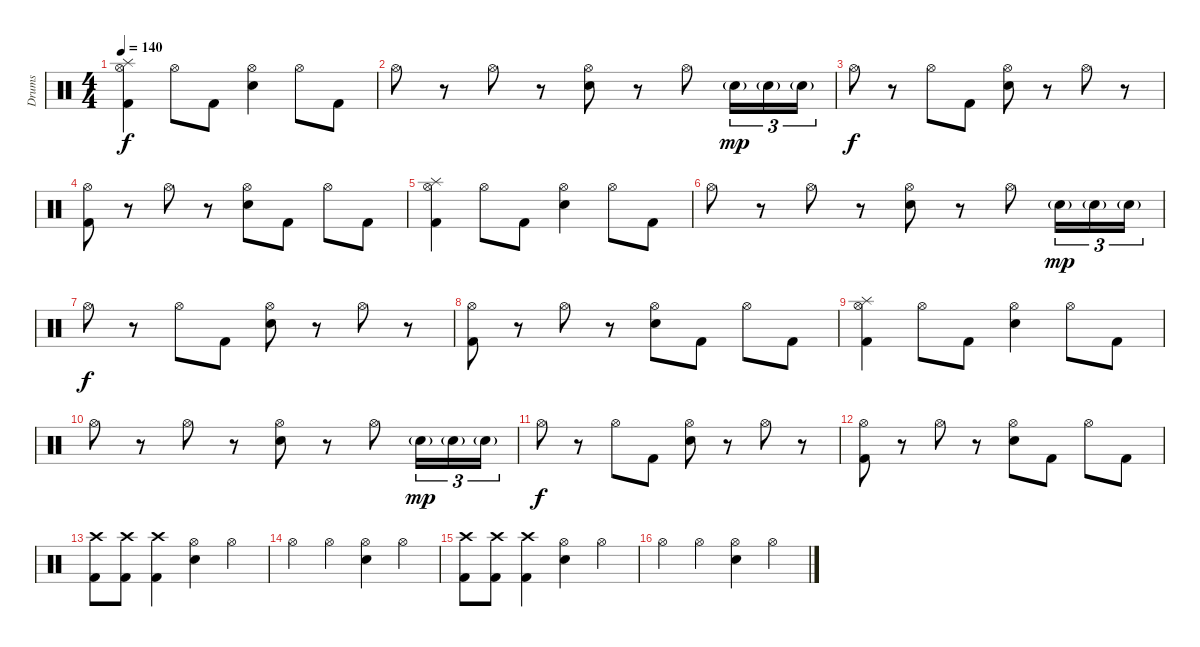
\track ("Drums" "Drums") {instrument percussion}
\staff {score}
\articulation defaults
\ts (4 4)
\tempo 140
\clef neutral
\ks c
("Hi-Hat (open)" "Splash (hit)" "Kick (hit) 2").4{dy f} "Hi-Hat (open)".8 "Kick (hit) 2".8 ("Hi-Hat (open)" "Electric Snare (hit)").4 "Hi-Hat (open)".8 "Kick (hit) 2".8 |
"Hi-Hat (open)".8 r.8 "Hi-Hat (open)".8 r.8 ("Hi-Hat (open)" "Electric Snare (hit)").8 r.8 "Hi-Hat (open)".8 "Electric Snare (hit)"{g}.16{tu (3 2) dy mp} "Electric Snare (hit)"{g}.16{tu (3 2)} "Electric Snare (hit)"{g}.16{tu (3 2)} |
"Hi-Hat (open)".8{dy f} r.8 "Hi-Hat (open)".8 "Kick (hit) 2".8 ("Hi-Hat (open)" "Electric Snare (hit)").8 r.8 "Hi-Hat (open)".8 r.8 |
("Hi-Hat (open)" "Kick (hit) 2").8 r.8 "Hi-Hat (open)".8 r.8 ("Hi-Hat (open)" "Electric Snare (hit)").8 "Kick (hit) 2".8 "Hi-Hat (open)".8 "Kick (hit) 2".8 |
("Hi-Hat (open)" "Splash (hit)" "Kick (hit) 2").4 "Hi-Hat (open)".8 "Kick (hit) 2".8 ("Hi-Hat (open)" "Electric Snare (hit)").4 "Hi-Hat (open)".8 "Kick (hit) 2".8 |
"Hi-Hat (open)".8 r.8 "Hi-Hat (open)".8 r.8 ("Hi-Hat (open)" "Electric Snare (hit)").8 r.8 "Hi-Hat (open)".8 "Electric Snare (hit)"{g}.16{tu (3 2) dy mp} "Electric Snare (hit)"{g}.16{tu (3 2)} "Electric Snare (hit)"{g}.16{tu (3 2)} |
"Hi-Hat (open)".8{dy f} r.8 "Hi-Hat (open)".8 "Kick (hit) 2".8 ("Hi-Hat (open)" "Electric Snare (hit)").8 r.8 "Hi-Hat (open)".8 r.8 |
("Hi-Hat (open)" "Kick (hit) 2").8 r.8 "Hi-Hat (open)".8 r.8 ("Hi-Hat (open)" "Electric Snare (hit)").8 "Kick (hit) 2".8 "Hi-Hat (open)".8 "Kick (hit) 2".8 |
("Hi-Hat (open)" "Splash (hit)" "Kick (hit) 2").4 "Hi-Hat (open)".8 "Kick (hit) 2".8 ("Hi-Hat (open)" "Electric Snare (hit)").4 "Hi-Hat (open)".8 "Kick (hit) 2".8 |
"Hi-Hat (open)".8 r.8 "Hi-Hat (open)".8 r.8 ("Hi-Hat (open)" "Electric Snare (hit)").8 r.8 "Hi-Hat (open)".8 "Electric Snare (hit)"{g}.16{tu (3 2) dy mp} "Electric Snare (hit)"{g}.16{tu (3 2)} "Electric Snare (hit)"{g}.16{tu (3 2)} |
"Hi-Hat (open)".8{dy f} r.8 "Hi-Hat (open)".8 "Kick (hit) 2".8 ("Hi-Hat (open)" "Electric Snare (hit)").8 r.8 "Hi-Hat (open)".8 r.8 |
("Hi-Hat (open)" "Kick (hit) 2").8 r.8 "Hi-Hat (open)".8 r.8 ("Hi-Hat (open)" "Electric Snare (hit)").8 "Kick (hit) 2".8 "Hi-Hat (open)".8 "Kick (hit) 2".8 |
("Crash high (hit)" "Kick (hit) 2").8 ("Crash high (hit)" "Kick (hit) 2").8 ("Crash high (hit)" "Kick (hit) 2").4 ("Hi-Hat (open)" "Electric Snare (hit)").4 "Hi-Hat (open)".4 |
"Hi-Hat (open)".4 "Hi-Hat (open)".4 ("Hi-Hat (open)" "Electric Snare (hit)").4 "Hi-Hat (open)".4 |
("Crash high (hit)" "Kick (hit) 2").8 ("Crash high (hit)" "Kick (hit) 2").8 ("Crash high (hit)" "Kick (hit) 2").4 ("Hi-Hat (open)" "Electric Snare (hit)").4 "Hi-Hat (open)".4 |
"Hi-Hat (open)".4 "Hi-Hat (open)".4 ("Hi-Hat (open)" "Electric Snare (hit)").4 "Hi-Hat (open)".4
